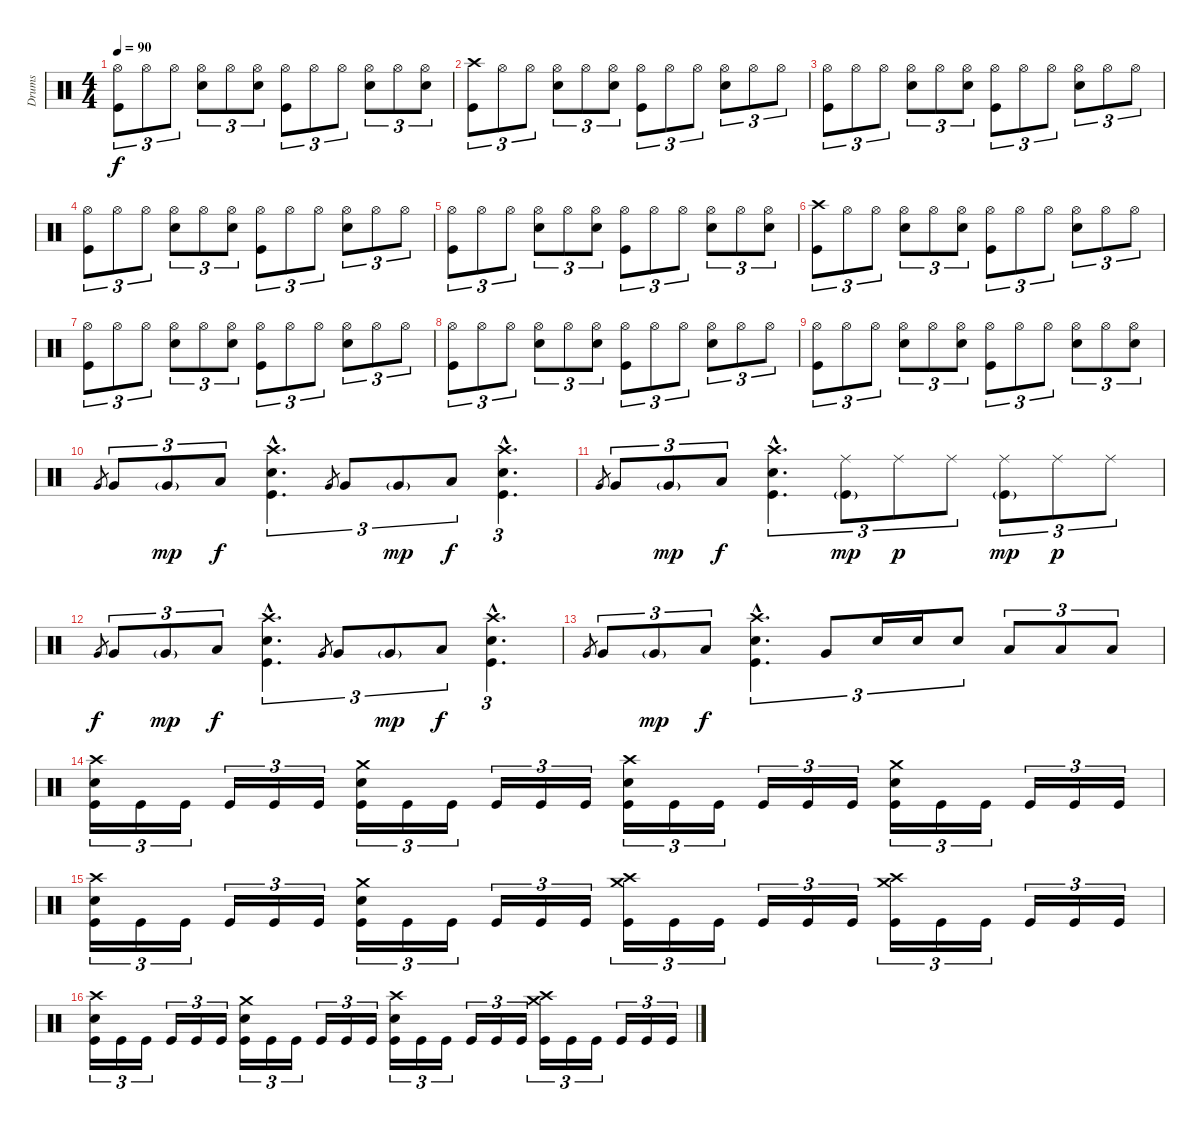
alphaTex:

\track ("Drums" "Drums") {instrument percussion}
\staff {score}
\articulation defaults
\ts (4 4)
\tempo 90
\clef neutral
\ks c
("Hi-Hat (open)" "Kick (hit)").8{tu (3 2) dy f} "Hi-Hat (open)".8{tu (3 2)} "Hi-Hat (open)".8{tu (3 2)} ("Hi-Hat (open)" "Snare (hit) 2").8{tu (3 2)} "Hi-Hat (open)".8{tu (3 2)} ("Hi-Hat (open)" "Snare (hit) 2").8{tu (3 2)} ("Hi-Hat (open)" "Kick (hit)").8{tu (3 2)} "Hi-Hat (open)".8{tu (3 2)} "Hi-Hat (open)".8{tu (3 2)} ("Hi-Hat (open)" "Snare (hit) 2").8{tu (3 2)} "Hi-Hat (open)".8{tu (3 2)} ("Hi-Hat (open)" "Snare (hit) 2").8{tu (3 2)} |
("Crash high (hit)" "Kick (hit)").8{tu (3 2)} "Hi-Hat (open)".8{tu (3 2)} "Hi-Hat (open)".8{tu (3 2)} ("Hi-Hat (open)" "Snare (hit) 2").8{tu (3 2)} "Hi-Hat (open)".8{tu (3 2)} ("Hi-Hat (open)" "Snare (hit) 2").8{tu (3 2)} ("Hi-Hat (open)" "Kick (hit)").8{tu (3 2)} "Hi-Hat (open)".8{tu (3 2)} "Hi-Hat (open)".8{tu (3 2)} ("Hi-Hat (open)" "Snare (hit) 2").8{tu (3 2)} "Hi-Hat (open)".8{tu (3 2)} "Hi-Hat (open)".8{tu (3 2)} |
("Hi-Hat (open)" "Kick (hit)").8{tu (3 2)} "Hi-Hat (open)".8{tu (3 2)} "Hi-Hat (open)".8{tu (3 2)} ("Hi-Hat (open)" "Snare (hit) 2").8{tu (3 2)} "Hi-Hat (open)".8{tu (3 2)} ("Hi-Hat (open)" "Snare (hit) 2").8{tu (3 2)} ("Hi-Hat (open)" "Kick (hit)").8{tu (3 2)} "Hi-Hat (open)".8{tu (3 2)} "Hi-Hat (open)".8{tu (3 2)} ("Hi-Hat (open)" "Snare (hit) 2").8{tu (3 2)} "Hi-Hat (open)".8{tu (3 2)} "Hi-Hat (open)".8{tu (3 2)} |
("Hi-Hat (open)" "Kick (hit)").8{tu (3 2)} "Hi-Hat (open)".8{tu (3 2)} "Hi-Hat (open)".8{tu (3 2)} ("Hi-Hat (open)" "Snare (hit) 2").8{tu (3 2)} "Hi-Hat (open)".8{tu (3 2)} ("Hi-Hat (open)" "Snare (hit) 2").8{tu (3 2)} ("Hi-Hat (open)" "Kick (hit)").8{tu (3 2)} "Hi-Hat (open)".8{tu (3 2)} "Hi-Hat (open)".8{tu (3 2)} ("Hi-Hat (open)" "Snare (hit) 2").8{tu (3 2)} "Hi-Hat (open)".8{tu (3 2)} "Hi-Hat (open)".8{tu (3 2)} |
("Hi-Hat (open)" "Kick (hit)").8{tu (3 2)} "Hi-Hat (open)".8{tu (3 2)} "Hi-Hat (open)".8{tu (3 2)} ("Hi-Hat (open)" "Snare (hit) 2").8{tu (3 2)} "Hi-Hat (open)".8{tu (3 2)} ("Hi-Hat (open)" "Snare (hit) 2").8{tu (3 2)} ("Hi-Hat (open)" "Kick (hit)").8{tu (3 2)} "Hi-Hat (open)".8{tu (3 2)} "Hi-Hat (open)".8{tu (3 2)} ("Hi-Hat (open)" "Snare (hit) 2").8{tu (3 2)} "Hi-Hat (open)".8{tu (3 2)} ("Hi-Hat (open)" "Snare (hit) 2").8{tu (3 2)} |
("Crash high (hit)" "Kick (hit)").8{tu (3 2)} "Hi-Hat (open)".8{tu (3 2)} "Hi-Hat (open)".8{tu (3 2)} ("Hi-Hat (open)" "Snare (hit) 2").8{tu (3 2)} "Hi-Hat (open)".8{tu (3 2)} ("Hi-Hat (open)" "Snare (hit) 2").8{tu (3 2)} ("Hi-Hat (open)" "Kick (hit)").8{tu (3 2)} "Hi-Hat (open)".8{tu (3 2)} "Hi-Hat (open)".8{tu (3 2)} ("Hi-Hat (open)" "Snare (hit) 2").8{tu (3 2)} "Hi-Hat (open)".8{tu (3 2)} "Hi-Hat (open)".8{tu (3 2)} |
("Hi-Hat (open)" "Kick (hit)").8{tu (3 2)} "Hi-Hat (open)".8{tu (3 2)} "Hi-Hat (open)".8{tu (3 2)} ("Hi-Hat (open)" "Snare (hit) 2").8{tu (3 2)} "Hi-Hat (open)".8{tu (3 2)} ("Hi-Hat (open)" "Snare (hit) 2").8{tu (3 2)} ("Hi-Hat (open)" "Kick (hit)").8{tu (3 2)} "Hi-Hat (open)".8{tu (3 2)} "Hi-Hat (open)".8{tu (3 2)} ("Hi-Hat (open)" "Snare (hit) 2").8{tu (3 2)} "Hi-Hat (open)".8{tu (3 2)} "Hi-Hat (open)".8{tu (3 2)} |
("Hi-Hat (open)" "Kick (hit)").8{tu (3 2)} "Hi-Hat (open)".8{tu (3 2)} "Hi-Hat (open)".8{tu (3 2)} ("Hi-Hat (open)" "Snare (hit) 2").8{tu (3 2)} "Hi-Hat (open)".8{tu (3 2)} ("Hi-Hat (open)" "Snare (hit) 2").8{tu (3 2)} ("Hi-Hat (open)" "Kick (hit)").8{tu (3 2)} "Hi-Hat (open)".8{tu (3 2)} "Hi-Hat (open)".8{tu (3 2)} ("Hi-Hat (open)" "Snare (hit) 2").8{tu (3 2)} "Hi-Hat (open)".8{tu (3 2)} "Hi-Hat (open)".8{tu (3 2)} |
("Hi-Hat (open)" "Kick (hit)").8{tu (3 2)} "Hi-Hat (open)".8{tu (3 2)} "Hi-Hat (open)".8{tu (3 2)} ("Hi-Hat (open)" "Snare (hit) 2").8{tu (3 2)} "Hi-Hat (open)".8{tu (3 2)} ("Hi-Hat (open)" "Snare (hit) 2").8{tu (3 2)} ("Hi-Hat (open)" "Kick (hit)").8{tu (3 2)} "Hi-Hat (open)".8{tu (3 2)} "Hi-Hat (open)".8{tu (3 2)} ("Hi-Hat (open)" "Snare (hit) 2").8{tu (3 2)} "Hi-Hat (open)".8{tu (3 2)} ("Hi-Hat (open)" "Snare (hit) 2").8{tu (3 2)} |
"Very Low Tom (hit)".8{gr} "Very Low Tom (hit)".8{tu (3 2)} "Very Low Tom (hit)"{g}.8{tu (3 2) dy mp} "Low Floor Tom (hit)".8{tu (3 2) dy f} ("Crash high (hit)"{hac} "Snare (hit) 2"{hac} "Kick (hit)"{hac}).4{d tu (3 2)} "Very Low Tom (hit)".8{gr} "Very Low Tom (hit)".8{tu (3 2)} "Very Low Tom (hit)"{g}.8{tu (3 2) dy mp} "Low Floor Tom (hit)".8{tu (3 2) dy f} ("Crash high (hit)"{hac} "Snare (hit) 2"{hac} "Kick (hit)"{hac}).4{d tu (3 2)} |
"Very Low Tom (hit)".8{gr} "Very Low Tom (hit)".8{tu (3 2)} "Very Low Tom (hit)"{g}.8{tu (3 2) dy mp} "Low Floor Tom (hit)".8{tu (3 2) dy f} ("Crash high (hit)"{hac} "Snare (hit) 2"{hac} "Kick (hit)"{hac}).4{d tu (3 2)} ("Ride (middle)" "Kick (hit)"{g}).8{tu (3 2) dy mp} "Ride (middle)".8{tu (3 2) dy p} "Ride (middle)".8{tu (3 2)} ("Ride (middle)" "Kick (hit)"{g}).8{tu (3 2) dy mp} "Ride (middle)".8{tu (3 2) dy p} "Ride (middle)".8{tu (3 2)} |
"Very Low Tom (hit)".8{gr dy f} "Very Low Tom (hit)".8{tu (3 2)} "Very Low Tom (hit)"{g}.8{tu (3 2) dy mp} "Low Floor Tom (hit)".8{tu (3 2) dy f} ("Crash high (hit)"{hac} "Snare (hit) 2"{hac} "Kick (hit)"{hac}).4{d tu (3 2)} "Very Low Tom (hit)".8{gr} "Very Low Tom (hit)".8{tu (3 2)} "Very Low Tom (hit)"{g}.8{tu (3 2) dy mp} "Low Floor Tom (hit)".8{tu (3 2) dy f} ("Crash high (hit)"{hac} "Snare (hit) 2"{hac} "Kick (hit)"{hac}).4{d tu (3 2)} |
"Very Low Tom (hit)".8{gr} "Very Low Tom (hit)".8{tu (3 2)} "Very Low Tom (hit)"{g}.8{tu (3 2) dy mp} "Low Floor Tom (hit)".8{tu (3 2) dy f} ("Crash high (hit)"{hac} "Snare (hit) 2"{hac} "Kick (hit)"{hac}).4{d tu (3 2)} "Very Low Tom (hit)".8{tu (3 2)} "Snare (hit) 2".16{tu (3 2)} "Snare (hit) 2".16{tu (3 2)} "Snare (hit) 2".8{tu (3 2)} "Low Floor Tom (hit)".8{tu (3 2)} "Low Floor Tom (hit)".8{tu (3 2)} "Low Floor Tom (hit)".8{tu (3 2)} |
("Crash high (hit)" "Snare (hit) 2" "Kick (hit)").16{tu (3 2)} "Kick (hit)".16{tu (3 2)} "Kick (hit)".16{tu (3 2)} "Kick (hit)".16{tu (3 2)} "Kick (hit)".16{tu (3 2)} "Kick (hit)".16{tu (3 2)} ("Crash medium (hit)" "Snare (hit) 2" "Kick (hit)").16{tu (3 2)} "Kick (hit)".16{tu (3 2)} "Kick (hit)".16{tu (3 2)} "Kick (hit)".16{tu (3 2)} "Kick (hit)".16{tu (3 2)} "Kick (hit)".16{tu (3 2)} ("Crash high (hit)" "Snare (hit) 2" "Kick (hit)").16{tu (3 2)} "Kick (hit)".16{tu (3 2)} "Kick (hit)".16{tu (3 2)} "Kick (hit)".16{tu (3 2)} "Kick (hit)".16{tu (3 2)} "Kick (hit)".16{tu (3 2)} ("Crash medium (hit)" "Snare (hit) 2" "Kick (hit)").16{tu (3 2)} "Kick (hit)".16{tu (3 2)} "Kick (hit)".16{tu (3 2)} "Kick (hit)".16{tu (3 2)} "Kick (hit)".16{tu (3 2)} "Kick (hit)".16{tu (3 2)} |
("Crash high (hit)" "Snare (hit) 2" "Kick (hit)").16{tu (3 2)} "Kick (hit)".16{tu (3 2)} "Kick (hit)".16{tu (3 2)} "Kick (hit)".16{tu (3 2)} "Kick (hit)".16{tu (3 2)} "Kick (hit)".16{tu (3 2)} ("Crash medium (hit)" "Snare (hit) 2" "Kick (hit)").16{tu (3 2)} "Kick (hit)".16{tu (3 2)} "Kick (hit)".16{tu (3 2)} "Kick (hit)".16{tu (3 2)} "Kick (hit)".16{tu (3 2)} "Kick (hit)".16{tu (3 2)} ("Crash high (hit)" "Crash medium (hit)" "Kick (hit)").16{tu (3 2)} "Kick (hit)".16{tu (3 2)} "Kick (hit)".16{tu (3 2)} "Kick (hit)".16{tu (3 2)} "Kick (hit)".16{tu (3 2)} "Kick (hit)".16{tu (3 2)} ("Crash medium (hit)" "Crash high (hit)" "Kick (hit)").16{tu (3 2)} "Kick (hit)".16{tu (3 2)} "Kick (hit)".16{tu (3 2)} "Kick (hit)".16{tu (3 2)} "Kick (hit)".16{tu (3 2)} "Kick (hit)".16{tu (3 2)} |
("Crash high (hit)" "Snare (hit) 2" "Kick (hit)").16{tu (3 2)} "Kick (hit)".16{tu (3 2)} "Kick (hit)".16{tu (3 2)} "Kick (hit)".16{tu (3 2)} "Kick (hit)".16{tu (3 2)} "Kick (hit)".16{tu (3 2)} ("Crash medium (hit)" "Snare (hit) 2" "Kick (hit)").16{tu (3 2)} "Kick (hit)".16{tu (3 2)} "Kick (hit)".16{tu (3 2)} "Kick (hit)".16{tu (3 2)} "Kick (hit)".16{tu (3 2)} "Kick (hit)".16{tu (3 2)} ("Crash high (hit)" "Snare (hit) 2" "Kick (hit)").16{tu (3 2)} "Kick (hit)".16{tu (3 2)} "Kick (hit)".16{tu (3 2)} "Kick (hit)".16{tu (3 2)} "Kick (hit)".16{tu (3 2)} "Kick (hit)".16{tu (3 2)} ("Crash medium (hit)" "Crash high (hit)" "Kick (hit)").16{tu (3 2)} "Kick (hit)".16{tu (3 2)} "Kick (hit)".16{tu (3 2)} "Kick (hit)".16{tu (3 2)} "Kick (hit)".16{tu (3 2)} "Kick (hit)".16{tu (3 2)}
